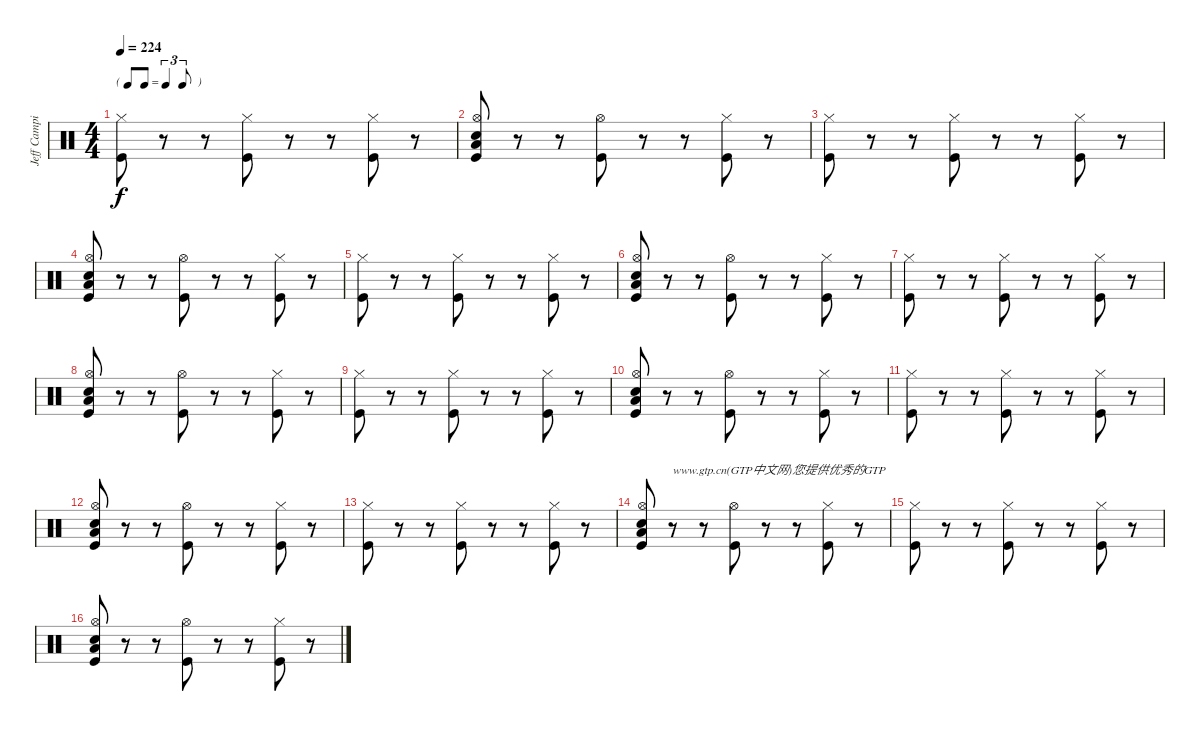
\track ("Jeff Campitelli" "Jeff Campi") {instrument percussion}
\staff {score}
\articulation defaults
\ts (4 4)
\tf triplet8th
\tempo 224
\clef neutral
\ks c
("Hi-Hat (closed)" "Kick (hit)").8{dy f} r.8 r.8 ("Hi-Hat (closed)" "Kick (hit)").8 r.8 r.8 ("Hi-Hat (closed)" "Kick (hit)").8 r.8 |
("Snare (hit) 2" "Hi-Hat (open)" "Low Floor Tom (hit)" "Kick (hit)").8 r.8 r.8 ("Hi-Hat (open)" "Kick (hit)").8 r.8 r.8 ("Hi-Hat (closed)" "Kick (hit)").8 r.8 |
("Hi-Hat (closed)" "Kick (hit)").8 r.8 r.8 ("Hi-Hat (closed)" "Kick (hit)").8 r.8 r.8 ("Hi-Hat (closed)" "Kick (hit)").8 r.8 |
("Snare (hit) 2" "Hi-Hat (open)" "Low Floor Tom (hit)" "Kick (hit)").8 r.8 r.8 ("Hi-Hat (open)" "Kick (hit)").8 r.8 r.8 ("Hi-Hat (closed)" "Kick (hit)").8 r.8 |
("Hi-Hat (closed)" "Kick (hit)").8 r.8 r.8 ("Hi-Hat (closed)" "Kick (hit)").8 r.8 r.8 ("Hi-Hat (closed)" "Kick (hit)").8 r.8 |
("Snare (hit) 2" "Hi-Hat (open)" "Low Floor Tom (hit)" "Kick (hit)").8 r.8 r.8 ("Hi-Hat (open)" "Kick (hit)").8 r.8 r.8 ("Hi-Hat (closed)" "Kick (hit)").8 r.8 |
("Hi-Hat (closed)" "Kick (hit)").8 r.8 r.8 ("Hi-Hat (closed)" "Kick (hit)").8 r.8 r.8 ("Hi-Hat (closed)" "Kick (hit)").8 r.8 |
("Snare (hit) 2" "Hi-Hat (open)" "Low Floor Tom (hit)" "Kick (hit)").8 r.8 r.8 ("Hi-Hat (open)" "Kick (hit)").8 r.8 r.8 ("Hi-Hat (closed)" "Kick (hit)").8 r.8 |
("Hi-Hat (closed)" "Kick (hit)").8 r.8 r.8 ("Hi-Hat (closed)" "Kick (hit)").8 r.8 r.8 ("Hi-Hat (closed)" "Kick (hit)").8 r.8 |
("Snare (hit) 2" "Hi-Hat (open)" "Low Floor Tom (hit)" "Kick (hit)").8 r.8 r.8 ("Hi-Hat (open)" "Kick (hit)").8 r.8 r.8 ("Hi-Hat (closed)" "Kick (hit)").8 r.8 |
("Hi-Hat (closed)" "Kick (hit)").8 r.8 r.8 ("Hi-Hat (closed)" "Kick (hit)").8 r.8 r.8 ("Hi-Hat (closed)" "Kick (hit)").8 r.8 |
("Snare (hit) 2" "Hi-Hat (open)" "Low Floor Tom (hit)" "Kick (hit)").8 r.8 r.8 ("Hi-Hat (open)" "Kick (hit)").8 r.8 r.8 ("Hi-Hat (closed)" "Kick (hit)").8 r.8 |
("Hi-Hat (closed)" "Kick (hit)").8 r.8 r.8 ("Hi-Hat (closed)" "Kick (hit)").8 r.8 r.8 ("Hi-Hat (closed)" "Kick (hit)").8 r.8 |
("Snare (hit) 2" "Hi-Hat (open)" "Low Floor Tom (hit)" "Kick (hit)").8 r.8{txt "www.gtp.cn(GTP中文网)您提供优秀的GTP"} r.8 ("Hi-Hat (open)" "Kick (hit)").8 r.8 r.8 ("Hi-Hat (closed)" "Kick (hit)").8 r.8 |
("Hi-Hat (closed)" "Kick (hit)").8 r.8 r.8 ("Hi-Hat (closed)" "Kick (hit)").8 r.8 r.8 ("Hi-Hat (closed)" "Kick (hit)").8 r.8 |
("Snare (hit) 2" "Hi-Hat (open)" "Low Floor Tom (hit)" "Kick (hit)").8 r.8 r.8 ("Hi-Hat (open)" "Kick (hit)").8 r.8 r.8 ("Hi-Hat (closed)" "Kick (hit)").8 r.8
